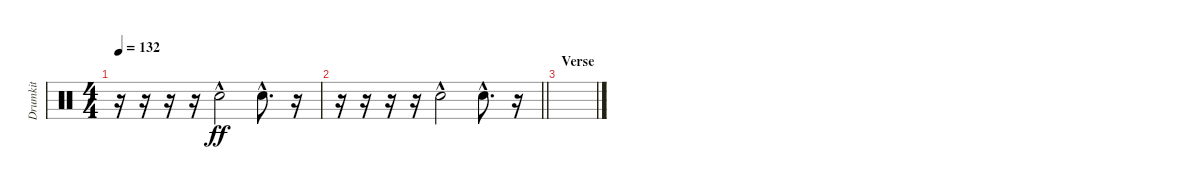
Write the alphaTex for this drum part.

\track ("Drumkit" "Drumkit") {instrument percussion}
\staff {score}
\articulation defaults
\ts (4 4)
\tempo 132
\clef neutral
\ks c
r.16{dy ff} r.16 r.16 r.16 "Snare (hit) 2"{hac}.2 "Snare (hit) 2"{hac}.8{d} r.16 |
\barLineRight lightlight
r.16 r.16 r.16 r.16 "Snare (hit) 2"{hac}.2 "Snare (hit) 2"{hac}.8{d} r.16 |
\section ("" "Verse")
